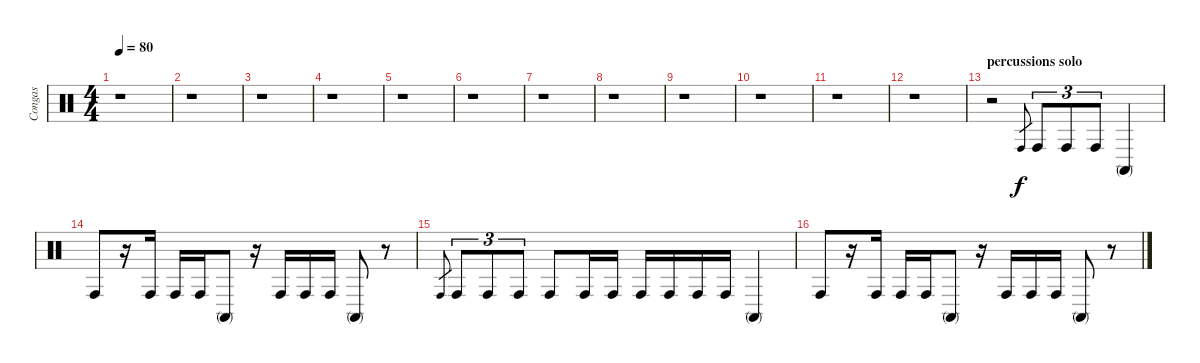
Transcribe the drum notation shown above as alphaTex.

\track ("Congas" "Congas") {instrument percussion}
\staff {score}
\articulation defaults
\ts (4 4)
\tempo 80
\clef neutral
\ks c
r.1{dy f} |
r.1 |
r.1 |
r.1 |
r.1 |
r.1 |
r.1 |
r.1 |
r.1 |
r.1 |
r.1 |
r.1 |
\section ("" "percussions solo")
r.2 "Conga high (hit)".8{gr} "Conga high (hit)".8{tu (3 2)} "Conga high (hit)".8{tu (3 2)} "Conga high (hit)".8{tu (3 2)} "Conga high (mute)".4 |
"Conga high (hit)".8 r.16 "Conga high (hit)".16 "Conga high (hit)".16 "Conga high (hit)".16 "Conga high (mute)".8 r.16 "Conga high (hit)".16 "Conga high (hit)".16 "Conga high (hit)".16 "Conga high (mute)".8 r.8 |
"Conga high (hit)".8{gr} "Conga high (hit)".8{tu (3 2)} "Conga high (hit)".8{tu (3 2)} "Conga high (hit)".8{tu (3 2)} "Conga high (hit)".8 "Conga high (hit)".16 "Conga high (hit)".16 "Conga high (hit)".16 "Conga high (hit)".16 "Conga high (hit)".16 "Conga high (hit)".16 "Conga high (mute)".4 |
"Conga high (hit)".8 r.16 "Conga high (hit)".16 "Conga high (hit)".16 "Conga high (hit)".16 "Conga high (mute)".8 r.16 "Conga high (hit)".16 "Conga high (hit)".16 "Conga high (hit)".16 "Conga high (mute)".8 r.8
